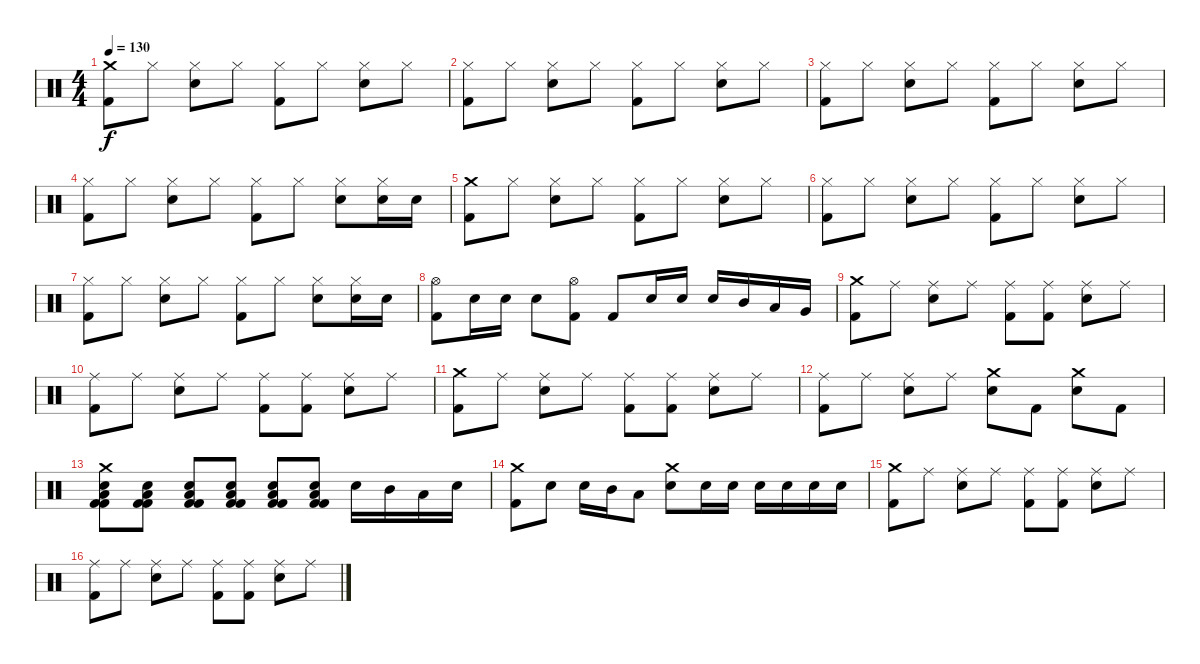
\track "" {instrument percussion}
\staff {score}
\articulation defaults
\ts (4 4)
\tempo 130
\clef neutral
\ks c
("Crash medium (hit)" "Kick (hit) 2").8{dy f} "Hi-Hat (closed)".8 ("Hi-Hat (closed)" "Electric Snare (hit)").8 "Hi-Hat (closed)".8 ("Hi-Hat (closed)" "Kick (hit) 2").8 "Hi-Hat (closed)".8 ("Hi-Hat (closed)" "Electric Snare (hit)").8 "Hi-Hat (closed)".8 |
("Hi-Hat (closed)" "Kick (hit) 2").8 "Hi-Hat (closed)".8 ("Hi-Hat (closed)" "Electric Snare (hit)").8 "Hi-Hat (closed)".8 ("Hi-Hat (closed)" "Kick (hit) 2").8 "Hi-Hat (closed)".8 ("Hi-Hat (closed)" "Electric Snare (hit)").8 "Hi-Hat (closed)".8 |
("Hi-Hat (closed)" "Kick (hit) 2").8 "Hi-Hat (closed)".8 ("Hi-Hat (closed)" "Electric Snare (hit)").8 "Hi-Hat (closed)".8 ("Hi-Hat (closed)" "Kick (hit) 2").8 "Hi-Hat (closed)".8 ("Hi-Hat (closed)" "Electric Snare (hit)").8 "Hi-Hat (closed)".8 |
("Hi-Hat (closed)" "Kick (hit) 2").8 "Hi-Hat (closed)".8 ("Hi-Hat (closed)" "Electric Snare (hit)").8 "Hi-Hat (closed)".8 ("Hi-Hat (closed)" "Kick (hit) 2").8 "Hi-Hat (closed)".8 ("Hi-Hat (closed)" "Electric Snare (hit)").8 ("Hi-Hat (closed)" "Electric Snare (hit)").16 "Electric Snare (hit)".16 |
("Crash medium (hit)" "Kick (hit) 2").8 "Hi-Hat (closed)".8 ("Hi-Hat (closed)" "Electric Snare (hit)").8 "Hi-Hat (closed)".8 ("Hi-Hat (closed)" "Kick (hit) 2").8 "Hi-Hat (closed)".8 ("Hi-Hat (closed)" "Electric Snare (hit)").8 "Hi-Hat (closed)".8 |
("Hi-Hat (closed)" "Kick (hit) 2").8 "Hi-Hat (closed)".8 ("Hi-Hat (closed)" "Electric Snare (hit)").8 "Hi-Hat (closed)".8 ("Hi-Hat (closed)" "Kick (hit) 2").8 "Hi-Hat (closed)".8 ("Hi-Hat (closed)" "Electric Snare (hit)").8 "Hi-Hat (closed)".8 |
("Hi-Hat (closed)" "Kick (hit) 2").8 "Hi-Hat (closed)".8 ("Hi-Hat (closed)" "Electric Snare (hit)").8 "Hi-Hat (closed)".8 ("Hi-Hat (closed)" "Kick (hit) 2").8 "Hi-Hat (closed)".8 ("Hi-Hat (closed)" "Electric Snare (hit)").8 ("Hi-Hat (closed)" "Electric Snare (hit)").16 "Electric Snare (hit)".16 |
("Hi-Hat (open)" "Kick (hit) 2").8 "Electric Snare (hit)".16 "Electric Snare (hit)".16 "Electric Snare (hit)".8 ("Hi-Hat (open)" "Kick (hit) 2").8 "Kick (hit) 2".8 "Electric Snare (hit)".16 "Electric Snare (hit)".16 "Electric Snare (hit)".16 "Mid Tom (hit)".16 "Low Tom (hit)".16 "Very Low Tom (hit)".16 |
("Crash medium (hit)" "Kick (hit) 2").8 "Ride (middle)".8 ("Ride (middle)" "Electric Snare (hit)").8 "Ride (middle)".8 ("Ride (middle)" "Kick (hit) 2").8 ("Ride (middle)" "Kick (hit) 2").8 ("Ride (middle)" "Electric Snare (hit)").8 "Ride (middle)".8 |
("Ride (middle)" "Kick (hit) 2").8 "Ride (middle)".8 ("Ride (middle)" "Electric Snare (hit)").8 "Ride (middle)".8 ("Ride (middle)" "Kick (hit) 2").8 ("Ride (middle)" "Kick (hit) 2").8 ("Ride (middle)" "Electric Snare (hit)").8 "Ride (middle)".8 |
("Crash medium (hit)" "Kick (hit) 2").8 "Ride (middle)".8 ("Ride (middle)" "Electric Snare (hit)").8 "Ride (middle)".8 ("Ride (middle)" "Kick (hit) 2").8 ("Ride (middle)" "Kick (hit) 2").8 ("Ride (middle)" "Electric Snare (hit)").8 "Ride (middle)".8 |
("Ride (middle)" "Kick (hit) 2").8 "Ride (middle)".8 ("Ride (middle)" "Electric Snare (hit)").8 "Ride (middle)".8 ("Crash medium (hit)" "Electric Snare (hit)").8 "Kick (hit) 2".8 ("Crash medium (hit)" "Electric Snare (hit)").8 "Kick (hit) 2".8{volume 10} |
("Crash medium (hit)" "Kick (hit) 2" "Electric Snare (hit)" "Low Tom (hit)" "Kick (hit) 2").8{volume 16} ("Kick (hit) 2" "Electric Snare (hit)" "Low Tom (hit)" "Kick (hit) 2").8 ("Kick (hit) 2" "Electric Snare (hit)" "Low Tom (hit)" "Kick (hit) 2").8 ("Kick (hit) 2" "Electric Snare (hit)" "Low Tom (hit)" "Kick (hit) 2").8 ("Kick (hit) 2" "Electric Snare (hit)" "Low Tom (hit)" "Kick (hit) 2").8 ("Kick (hit) 2" "Electric Snare (hit)" "Low Tom (hit)" "Kick (hit) 2").8 "Electric Snare (hit)".16 "Mid Tom (hit)".16 "Low Tom (hit)".16 "Electric Snare (hit)".16 |
("Crash medium (hit)" "Kick (hit) 2").8 "Electric Snare (hit)".8 "Electric Snare (hit)".16 "Mid Tom (hit)".16 "Low Tom (hit)".8 ("Crash medium (hit)" "Electric Snare (hit)").8 "Electric Snare (hit)".16 "Electric Snare (hit)".16 "Electric Snare (hit)".16 "Electric Snare (hit)".16 "Electric Snare (hit)".16 "Electric Snare (hit)".16 |
("Crash medium (hit)" "Kick (hit) 2").8 "Ride (middle)".8 ("Ride (middle)" "Electric Snare (hit)").8 "Ride (middle)".8 ("Ride (middle)" "Kick (hit) 2").8 ("Ride (middle)" "Kick (hit) 2").8 ("Ride (middle)" "Electric Snare (hit)").8 "Ride (middle)".8 |
("Ride (middle)" "Kick (hit) 2").8 "Ride (middle)".8 ("Ride (middle)" "Electric Snare (hit)").8 "Ride (middle)".8 ("Ride (middle)" "Kick (hit) 2").8 ("Ride (middle)" "Kick (hit) 2").8 ("Ride (middle)" "Electric Snare (hit)").8 "Ride (middle)".8
